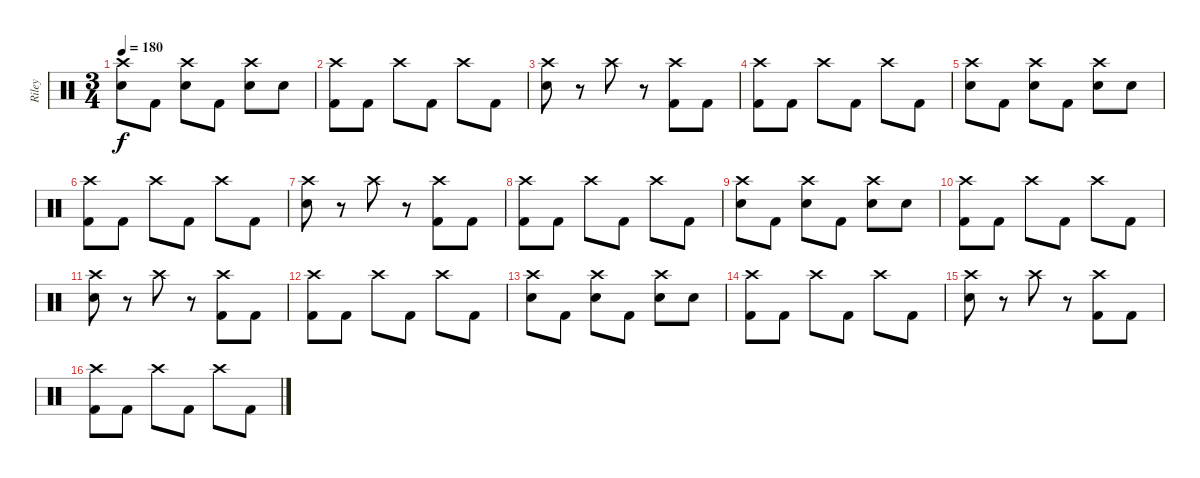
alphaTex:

\track ("Riley" "Riley") {instrument percussion}
\staff {score}
\articulation defaults
\ts (3 4)
\tempo 180
\clef neutral
\ks c
("Crash high (hit)" "Electric Snare (hit)").8{dy f} "Kick (hit) 2".8 ("Crash high (hit)" "Electric Snare (hit)").8 "Kick (hit) 2".8 ("Crash high (hit)" "Electric Snare (hit)").8 "Electric Snare (hit)".8 |
("Crash high (hit)" "Kick (hit) 2").8 "Kick (hit) 2".8 "Crash high (hit)".8 "Kick (hit) 2".8 "Crash high (hit)".8 "Kick (hit) 2".8 |
("Crash high (hit)" "Electric Snare (hit)").8 r.8 "Crash high (hit)".8 r.8 ("Crash high (hit)" "Kick (hit) 2").8 "Kick (hit) 2".8 |
("Crash high (hit)" "Kick (hit) 2").8 "Kick (hit) 2".8 "Crash high (hit)".8 "Kick (hit) 2".8 "Crash high (hit)".8 "Kick (hit) 2".8 |
("Crash high (hit)" "Electric Snare (hit)").8 "Kick (hit) 2".8 ("Crash high (hit)" "Electric Snare (hit)").8 "Kick (hit) 2".8 ("Crash high (hit)" "Electric Snare (hit)").8 "Electric Snare (hit)".8 |
("Crash high (hit)" "Kick (hit) 2").8 "Kick (hit) 2".8 "Crash high (hit)".8 "Kick (hit) 2".8 "Crash high (hit)".8 "Kick (hit) 2".8 |
("Crash high (hit)" "Electric Snare (hit)").8 r.8 "Crash high (hit)".8 r.8 ("Crash high (hit)" "Kick (hit) 2").8 "Kick (hit) 2".8 |
("Crash high (hit)" "Kick (hit) 2").8 "Kick (hit) 2".8 "Crash high (hit)".8 "Kick (hit) 2".8 "Crash high (hit)".8 "Kick (hit) 2".8 |
("Crash high (hit)" "Electric Snare (hit)").8 "Kick (hit) 2".8 ("Crash high (hit)" "Electric Snare (hit)").8 "Kick (hit) 2".8 ("Crash high (hit)" "Electric Snare (hit)").8 "Electric Snare (hit)".8 |
("Crash high (hit)" "Kick (hit) 2").8 "Kick (hit) 2".8 "Crash high (hit)".8 "Kick (hit) 2".8 "Crash high (hit)".8 "Kick (hit) 2".8 |
("Crash high (hit)" "Electric Snare (hit)").8 r.8 "Crash high (hit)".8 r.8 ("Crash high (hit)" "Kick (hit) 2").8 "Kick (hit) 2".8 |
("Crash high (hit)" "Kick (hit) 2").8 "Kick (hit) 2".8 "Crash high (hit)".8 "Kick (hit) 2".8 "Crash high (hit)".8 "Kick (hit) 2".8 |
("Crash high (hit)" "Electric Snare (hit)").8 "Kick (hit) 2".8 ("Crash high (hit)" "Electric Snare (hit)").8 "Kick (hit) 2".8 ("Crash high (hit)" "Electric Snare (hit)").8 "Electric Snare (hit)".8 |
("Crash high (hit)" "Kick (hit) 2").8 "Kick (hit) 2".8 "Crash high (hit)".8 "Kick (hit) 2".8 "Crash high (hit)".8 "Kick (hit) 2".8 |
("Crash high (hit)" "Electric Snare (hit)").8 r.8 "Crash high (hit)".8 r.8 ("Crash high (hit)" "Kick (hit) 2").8 "Kick (hit) 2".8 |
("Crash high (hit)" "Kick (hit) 2").8 "Kick (hit) 2".8 "Crash high (hit)".8 "Kick (hit) 2".8 "Crash high (hit)".8 "Kick (hit) 2".8
